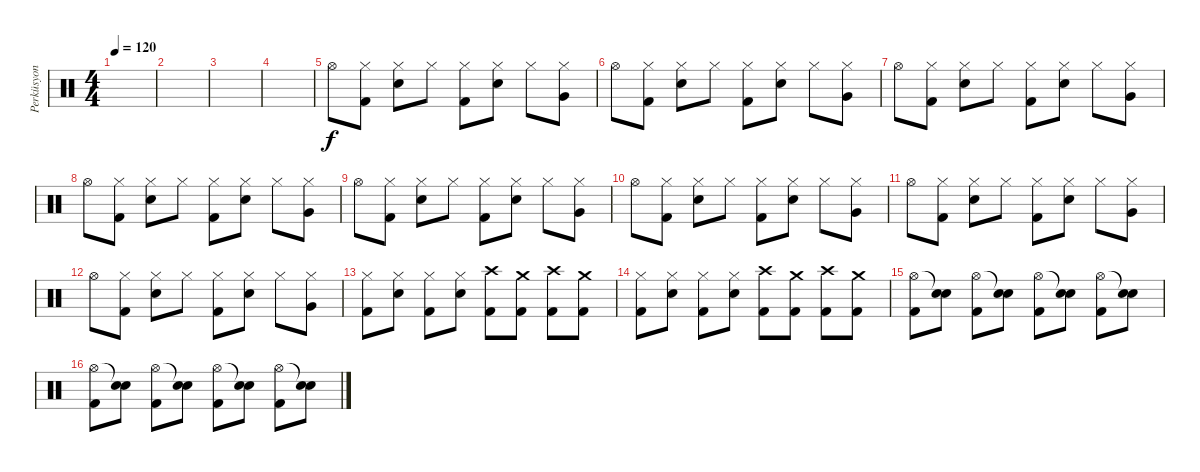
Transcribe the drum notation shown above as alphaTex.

\track ("Perküsyon" "Perküsyon") {instrument percussion}
\staff {score}
\articulation defaults
\ts (4 4)
\tempo 120
\clef neutral
\ks c
|
|
|
|
"Hi-Hat (open)".8 ("Hi-Hat (closed)" "Kick (hit) 2").8 ("Hi-Hat (closed)" "Electric Snare (hit)").8 "Hi-Hat (closed)".8 ("Hi-Hat (closed)" "Kick (hit) 2").8 ("Hi-Hat (closed)" "Electric Snare (hit)").8 "Hi-Hat (closed)".8 ("Hi-Hat (closed)" "Very Low Tom (hit)").8 |
"Hi-Hat (open)".8 ("Hi-Hat (closed)" "Kick (hit) 2").8 ("Hi-Hat (closed)" "Electric Snare (hit)").8 "Hi-Hat (closed)".8 ("Hi-Hat (closed)" "Kick (hit) 2").8 ("Hi-Hat (closed)" "Electric Snare (hit)").8 "Hi-Hat (closed)".8 ("Hi-Hat (closed)" "Very Low Tom (hit)").8 |
"Hi-Hat (open)".8 ("Hi-Hat (closed)" "Kick (hit) 2").8 ("Hi-Hat (closed)" "Electric Snare (hit)").8 "Hi-Hat (closed)".8 ("Hi-Hat (closed)" "Kick (hit) 2").8 ("Hi-Hat (closed)" "Electric Snare (hit)").8 "Hi-Hat (closed)".8 ("Hi-Hat (closed)" "Very Low Tom (hit)").8 |
"Hi-Hat (open)".8 ("Hi-Hat (closed)" "Kick (hit) 2").8 ("Hi-Hat (closed)" "Electric Snare (hit)").8 "Hi-Hat (closed)".8 ("Hi-Hat (closed)" "Kick (hit) 2").8 ("Hi-Hat (closed)" "Electric Snare (hit)").8 "Hi-Hat (closed)".8 ("Hi-Hat (closed)" "Very Low Tom (hit)").8 |
"Hi-Hat (open)".8 ("Hi-Hat (closed)" "Kick (hit) 2").8 ("Hi-Hat (closed)" "Electric Snare (hit)").8 "Hi-Hat (closed)".8 ("Hi-Hat (closed)" "Kick (hit) 2").8 ("Hi-Hat (closed)" "Electric Snare (hit)").8 "Hi-Hat (closed)".8 ("Hi-Hat (closed)" "Very Low Tom (hit)").8 |
"Hi-Hat (open)".8 ("Hi-Hat (closed)" "Kick (hit) 2").8 ("Hi-Hat (closed)" "Electric Snare (hit)").8 "Hi-Hat (closed)".8 ("Hi-Hat (closed)" "Kick (hit) 2").8 ("Hi-Hat (closed)" "Electric Snare (hit)").8 "Hi-Hat (closed)".8 ("Hi-Hat (closed)" "Very Low Tom (hit)").8 |
"Hi-Hat (open)".8 ("Hi-Hat (closed)" "Kick (hit) 2").8 ("Hi-Hat (closed)" "Electric Snare (hit)").8 "Hi-Hat (closed)".8 ("Hi-Hat (closed)" "Kick (hit) 2").8 ("Hi-Hat (closed)" "Electric Snare (hit)").8 "Hi-Hat (closed)".8 ("Hi-Hat (closed)" "Very Low Tom (hit)").8 |
"Hi-Hat (open)".8 ("Hi-Hat (closed)" "Kick (hit) 2").8 ("Hi-Hat (closed)" "Electric Snare (hit)").8 "Hi-Hat (closed)".8 ("Hi-Hat (closed)" "Kick (hit) 2").8 ("Hi-Hat (closed)" "Electric Snare (hit)").8 "Hi-Hat (closed)".8 ("Hi-Hat (closed)" "Very Low Tom (hit)").8 |
("Hi-Hat (closed)" "Kick (hit) 2").8 ("Hi-Hat (closed)" "Electric Snare (hit)").8 ("Hi-Hat (closed)" "Kick (hit) 2").8 ("Hi-Hat (closed)" "Electric Snare (hit)").8 ("Crash high (hit)" "Kick (hit) 2").8 ("Crash medium (hit)" "Kick (hit) 2").8 ("Crash high (hit)" "Kick (hit) 2").8 ("Crash medium (hit)" "Kick (hit) 2").8 |
("Hi-Hat (closed)" "Kick (hit) 2").8 ("Hi-Hat (closed)" "Electric Snare (hit)").8 ("Hi-Hat (closed)" "Kick (hit) 2").8 ("Hi-Hat (closed)" "Electric Snare (hit)").8 ("Crash high (hit)" "Kick (hit) 2").8 ("Crash medium (hit)" "Kick (hit) 2").8 ("Crash high (hit)" "Kick (hit) 2").8 ("Crash medium (hit)" "Kick (hit) 2").8 |
("Hi-Hat (open)" "Kick (hit) 2").8 ("Snare (hit)"{t} "Electric Snare (hit)").8 ("Hi-Hat (open)" "Kick (hit) 2").8 ("Snare (hit)"{t} "Electric Snare (hit)").8 ("Hi-Hat (open)" "Kick (hit) 2").8 ("Snare (hit)"{t} "Electric Snare (hit)").8 ("Hi-Hat (open)" "Kick (hit) 2").8 ("Snare (hit)"{t} "Electric Snare (hit)").8 |
("Hi-Hat (open)" "Kick (hit) 2").8 ("Snare (hit)"{t} "Electric Snare (hit)").8 ("Hi-Hat (open)" "Kick (hit) 2").8 ("Snare (hit)"{t} "Electric Snare (hit)").8 ("Hi-Hat (open)" "Kick (hit) 2").8 ("Snare (hit)"{t} "Electric Snare (hit)").8 ("Hi-Hat (open)" "Kick (hit) 2").8 ("Snare (hit)"{t} "Electric Snare (hit)").8
